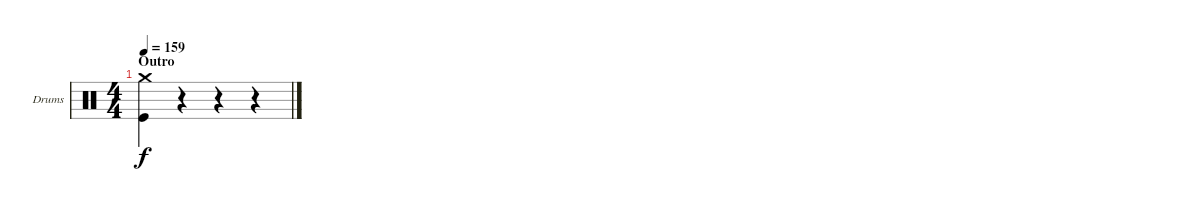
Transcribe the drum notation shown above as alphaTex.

\bracketExtendMode groupsimilarinstruments
\firstSystemTrackNameOrientation horizontal
\otherSystemsTrackNameOrientation horizontal
\track ("Drumkit" "Drums") {instrument percussion}
\staff {score}
\articulation defaults
\ts (4 4)
\section ("" "Outro")
\tempo 159
\clef neutral
\scale
0.333333
\ks c
("Crash medium (hit)" "Kick (hit)").4{dy f} r.4 r.4 r.4 |
\scale
0.333333 |
\scale
0.333333 |
\scale
0.333333 |
\scale
0.333333
